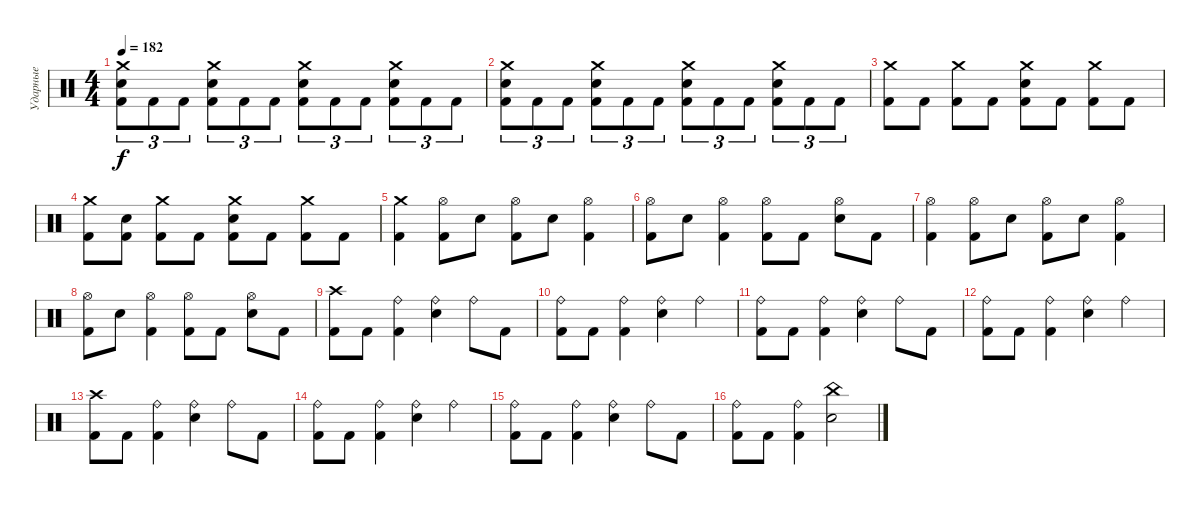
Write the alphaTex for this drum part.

\track ("Ударные" "Ударные") {instrument percussion}
\staff {score}
\articulation defaults
\ts (4 4)
\tempo 182
\clef neutral
\ks c
("Crash medium (hit)" "Electric Snare (hit)" "Kick (hit) 2").8{tu (3 2) dy f} "Kick (hit) 2".8{tu (3 2)} "Kick (hit) 2".8{tu (3 2)} ("Crash medium (hit)" "Electric Snare (hit)" "Kick (hit) 2").8{tu (3 2)} "Kick (hit) 2".8{tu (3 2)} "Kick (hit) 2".8{tu (3 2)} ("Crash medium (hit)" "Electric Snare (hit)" "Kick (hit) 2").8{tu (3 2)} "Kick (hit) 2".8{tu (3 2)} "Kick (hit) 2".8{tu (3 2)} ("Crash medium (hit)" "Electric Snare (hit)" "Kick (hit) 2").8{tu (3 2)} "Kick (hit) 2".8{tu (3 2)} "Kick (hit) 2".8{tu (3 2)} |
("Crash medium (hit)" "Electric Snare (hit)" "Kick (hit) 2").8{tu (3 2)} "Kick (hit) 2".8{tu (3 2)} "Kick (hit) 2".8{tu (3 2)} ("Crash medium (hit)" "Electric Snare (hit)" "Kick (hit) 2").8{tu (3 2)} "Kick (hit) 2".8{tu (3 2)} "Kick (hit) 2".8{tu (3 2)} ("Crash medium (hit)" "Electric Snare (hit)" "Kick (hit) 2").8{tu (3 2)} "Kick (hit) 2".8{tu (3 2)} "Kick (hit) 2".8{tu (3 2)} ("Crash medium (hit)" "Electric Snare (hit)" "Kick (hit) 2").8{tu (3 2)} "Kick (hit) 2".8{tu (3 2)} "Kick (hit) 2".8{tu (3 2)} |
("Crash medium (hit)" "Kick (hit) 2").8 "Kick (hit) 2".8 ("Crash medium (hit)" "Kick (hit) 2").8 "Kick (hit) 2".8 ("Crash medium (hit)" "Electric Snare (hit)" "Kick (hit) 2").8 "Kick (hit) 2".8 ("Crash medium (hit)" "Kick (hit) 2").8 "Kick (hit) 2".8 |
("Crash medium (hit)" "Kick (hit) 2").8 ("Electric Snare (hit)" "Kick (hit) 2").8 ("Crash medium (hit)" "Kick (hit) 2").8 "Kick (hit) 2".8 ("Crash medium (hit)" "Electric Snare (hit)" "Kick (hit) 2").8 "Kick (hit) 2".8 ("Crash medium (hit)" "Kick (hit) 2").8 "Kick (hit) 2".8 |
("Crash medium (hit)" "Kick (hit) 2").4 ("Hi-Hat (open)" "Kick (hit) 2").8 "Electric Snare (hit)".8 ("Hi-Hat (open)" "Kick (hit) 2").8 "Electric Snare (hit)".8 ("Hi-Hat (open)" "Kick (hit) 2").4 |
("Hi-Hat (open)" "Kick (hit) 2").8 "Electric Snare (hit)".8 ("Hi-Hat (open)" "Kick (hit) 2").4 ("Hi-Hat (open)" "Kick (hit) 2").8 "Kick (hit) 2".8 ("Hi-Hat (open)" "Electric Snare (hit)").8 "Kick (hit) 2".8 |
("Hi-Hat (open)" "Kick (hit) 2").4 ("Hi-Hat (open)" "Kick (hit) 2").8 "Electric Snare (hit)".8 ("Hi-Hat (open)" "Kick (hit) 2").8 "Electric Snare (hit)".8 ("Hi-Hat (open)" "Kick (hit) 2").4 |
("Hi-Hat (open)" "Kick (hit) 2").8 "Electric Snare (hit)".8 ("Hi-Hat (open)" "Kick (hit) 2").4 ("Hi-Hat (open)" "Kick (hit) 2").8 "Kick (hit) 2".8 ("Hi-Hat (open)" "Electric Snare (hit)").8 "Kick (hit) 2".8 |
("Crash high (hit)" "Kick (hit) 2").8 "Kick (hit) 2".8 ("Ride (bell)" "Kick (hit) 2").4 ("Ride (bell)" "Electric Snare (hit)").4 "Ride (bell)".8 "Kick (hit) 2".8 |
("Ride (bell)" "Kick (hit) 2").8 "Kick (hit) 2".8 ("Ride (bell)" "Kick (hit) 2").4 ("Ride (bell)" "Electric Snare (hit)").4 "Ride (bell)".4 |
("Ride (bell)" "Kick (hit) 2").8 "Kick (hit) 2".8 ("Ride (bell)" "Kick (hit) 2").4 ("Ride (bell)" "Electric Snare (hit)").4 "Ride (bell)".8 "Kick (hit) 2".8 |
("Ride (bell)" "Kick (hit) 2").8 "Kick (hit) 2".8 ("Ride (bell)" "Kick (hit) 2").4 ("Ride (bell)" "Electric Snare (hit)").4 "Ride (bell)".4 |
("Crash high (hit)" "Kick (hit) 2").8 "Kick (hit) 2".8 ("Ride (bell)" "Kick (hit) 2").4 ("Ride (bell)" "Electric Snare (hit)").4 "Ride (bell)".8 "Kick (hit) 2".8 |
("Ride (bell)" "Kick (hit) 2").8 "Kick (hit) 2".8 ("Ride (bell)" "Kick (hit) 2").4 ("Ride (bell)" "Electric Snare (hit)").4 "Ride (bell)".4 |
("Ride (bell)" "Kick (hit) 2").8 "Kick (hit) 2".8 ("Ride (bell)" "Kick (hit) 2").4 ("Ride (bell)" "Electric Snare (hit)").4 "Ride (bell)".8 "Kick (hit) 2".8 |
("Ride (bell)" "Kick (hit) 2").8 "Kick (hit) 2".8 ("Ride (bell)" "Kick (hit) 2").4 ("China (hit)" "Electric Snare (hit)").2
